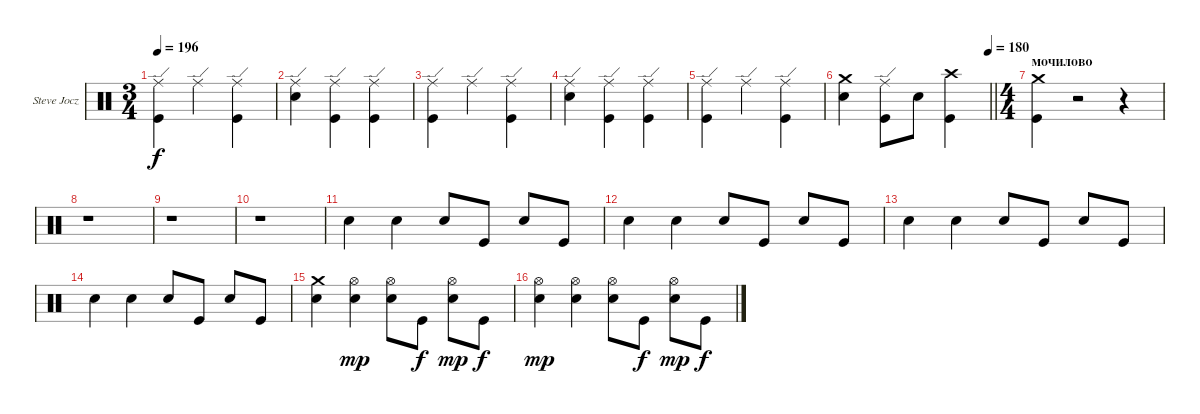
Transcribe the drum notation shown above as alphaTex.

\defaultSystemsLayout 4
\bracketExtendMode groupsimilarinstruments
\firstSystemTrackNameOrientation horizontal
\otherSystemsTrackNameOrientation horizontal
\track ("Steve Jocz " "Steve Jocz") {instrument percussion}
\staff {score}
\articulation defaults
\ts (3 4)
\tempo 196
\clef neutral
\ks c
("Ride (edge)" "Kick (hit)").4{dy f} "Ride (edge)".4 ("Ride (edge)" "Kick (hit)").4 |
("Ride (edge)" "Snare (hit) 2").4 ("Ride (edge)" "Kick (hit)").4 ("Ride (edge)" "Kick (hit)").4 |
("Ride (edge)" "Kick (hit)").4 "Ride (edge)".4 ("Ride (edge)" "Kick (hit)").4 |
("Ride (edge)" "Snare (hit) 2").4 ("Ride (edge)" "Kick (hit)").4 ("Ride (edge)" "Kick (hit)").4 |
("Ride (edge)" "Kick (hit)").4 "Ride (edge)".4 ("Ride (edge)" "Kick (hit)").4 |
\tempo (180 0.99375)
\barLineRight lightlight
("Crash medium (hit)" "Snare (hit) 2").4 ("Ride (edge)" "Kick (hit)").8 "Snare (hit) 2".8 ("Crash high (hit)" "Kick (hit)").4 |
\ts (4 4)
\section ("" "мочилово")
("Crash medium (hit)" "Kick (hit)").4 r.2 r.4 |
r.1 |
r.1 |
r.1 |
"Snare (hit) 2".4 "Snare (hit) 2".4 "Snare (hit) 2".8 "Kick (hit)".8 "Snare (hit) 2".8 "Kick (hit)".8 |
"Snare (hit) 2".4 "Snare (hit) 2".4 "Snare (hit) 2".8 "Kick (hit)".8 "Snare (hit) 2".8 "Kick (hit)".8 |
"Snare (hit) 2".4 "Snare (hit) 2".4 "Snare (hit) 2".8 "Kick (hit)".8 "Snare (hit) 2".8 "Kick (hit)".8 |
"Snare (hit) 2".4 "Snare (hit) 2".4 "Snare (hit) 2".8 "Kick (hit)".8 "Snare (hit) 2".8 "Kick (hit)".8 |
("Crash medium (hit)" "Snare (hit) 2").4 ("Hi-Hat (open)" "Snare (hit) 2").4{dy mp} ("Hi-Hat (open)" "Snare (hit) 2").8 "Kick (hit)".8{dy f} ("Hi-Hat (open)" "Snare (hit) 2").8{dy mp} "Kick (hit)".8{dy f} |
("Hi-Hat (open)" "Snare (hit) 2").4{dy mp} ("Hi-Hat (open)" "Snare (hit) 2").4 ("Hi-Hat (open)" "Snare (hit) 2").8 "Kick (hit)".8{dy f} ("Hi-Hat (open)" "Snare (hit) 2").8{dy mp} "Kick (hit)".8{dy f}
